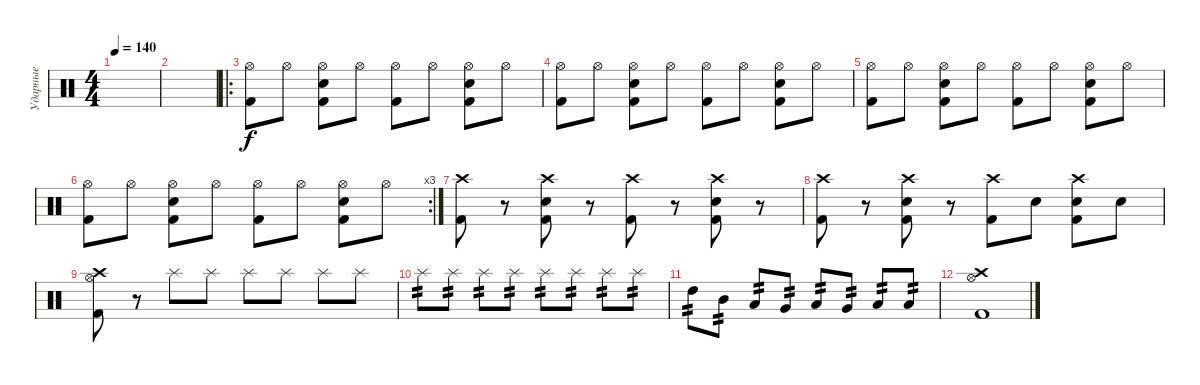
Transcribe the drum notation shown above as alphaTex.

\track ("Ударные" "Ударные") {instrument percussion}
\staff {score}
\articulation defaults
\ts (4 4)
\tempo 140
\clef neutral
\ks c
|
|
\ro
("Hi-Hat (open)" "Kick (hit) 2").8 "Hi-Hat (open)".8 ("Hi-Hat (open)" "Electric Snare (hit)" "Kick (hit) 2").8 "Hi-Hat (open)".8 ("Hi-Hat (open)" "Kick (hit) 2").8 "Hi-Hat (open)".8 ("Hi-Hat (open)" "Electric Snare (hit)" "Kick (hit) 2").8 "Hi-Hat (open)".8 |
("Hi-Hat (open)" "Kick (hit) 2").8 "Hi-Hat (open)".8 ("Hi-Hat (open)" "Electric Snare (hit)" "Kick (hit) 2").8 "Hi-Hat (open)".8 ("Hi-Hat (open)" "Kick (hit) 2").8 "Hi-Hat (open)".8 ("Hi-Hat (open)" "Electric Snare (hit)" "Kick (hit) 2").8 "Hi-Hat (open)".8 |
("Hi-Hat (open)" "Kick (hit) 2").8 "Hi-Hat (open)".8 ("Hi-Hat (open)" "Electric Snare (hit)" "Kick (hit) 2").8 "Hi-Hat (open)".8 ("Hi-Hat (open)" "Kick (hit) 2").8 "Hi-Hat (open)".8 ("Hi-Hat (open)" "Electric Snare (hit)" "Kick (hit) 2").8 "Hi-Hat (open)".8 |
\rc 3
("Hi-Hat (open)" "Kick (hit) 2").8 "Hi-Hat (open)".8 ("Hi-Hat (open)" "Electric Snare (hit)" "Kick (hit) 2").8 "Hi-Hat (open)".8 ("Hi-Hat (open)" "Kick (hit) 2").8 "Hi-Hat (open)".8 ("Hi-Hat (open)" "Electric Snare (hit)" "Kick (hit) 2").8 "Hi-Hat (open)".8 |
("Crash high (hit)" "Kick (hit) 2").8 r.8 ("Crash high (hit)" "Electric Snare (hit)" "Kick (hit) 2").8 r.8 ("Crash high (hit)" "Kick (hit) 2").8 r.8 ("Crash high (hit)" "Electric Snare (hit)" "Kick (hit) 2").8 r.8 |
("Crash high (hit)" "Kick (hit) 2").8 r.8 ("Crash high (hit)" "Electric Snare (hit)" "Kick (hit) 2").8 r.8 ("Crash high (hit)" "Kick (hit) 2").8 "Electric Snare (hit)".8 ("Crash high (hit)" "Electric Snare (hit)" "Kick (hit) 2").8 "Electric Snare (hit)".8 |
("Crash high (hit)" "Hi-Hat (open)" "Kick (hit) 2").8 r.8 "Splash (hit)".8 "Splash (hit)".8 "Splash (hit)".8 "Splash (hit)".8 "Splash (hit)".8 "Splash (hit)".8 |
"Splash (hit)".8{tp 2} "Splash (hit)".8{tp 2} "Splash (hit)".8{tp 2} "Splash (hit)".8{tp 2} "Splash (hit)".8{tp 2} "Splash (hit)".8{tp 2} "Splash (hit)".8{tp 2} "Splash (hit)".8{tp 2} |
"High Tom (hit)".8{tp 2} "Mid Tom (hit)".8{tp 2} "Low Tom (hit)".8{tp 2} "Very Low Tom (hit)".8{tp 2} "Low Floor Tom (hit)".8{tp 2} "Very Low Tom (hit)".8{tp 2} "Low Floor Tom (hit)".8{tp 2} "Low Tom (hit)".8{tp 2} |
("Crash high (hit)" "Hi-Hat (open)" "Kick (hit) 2").1
